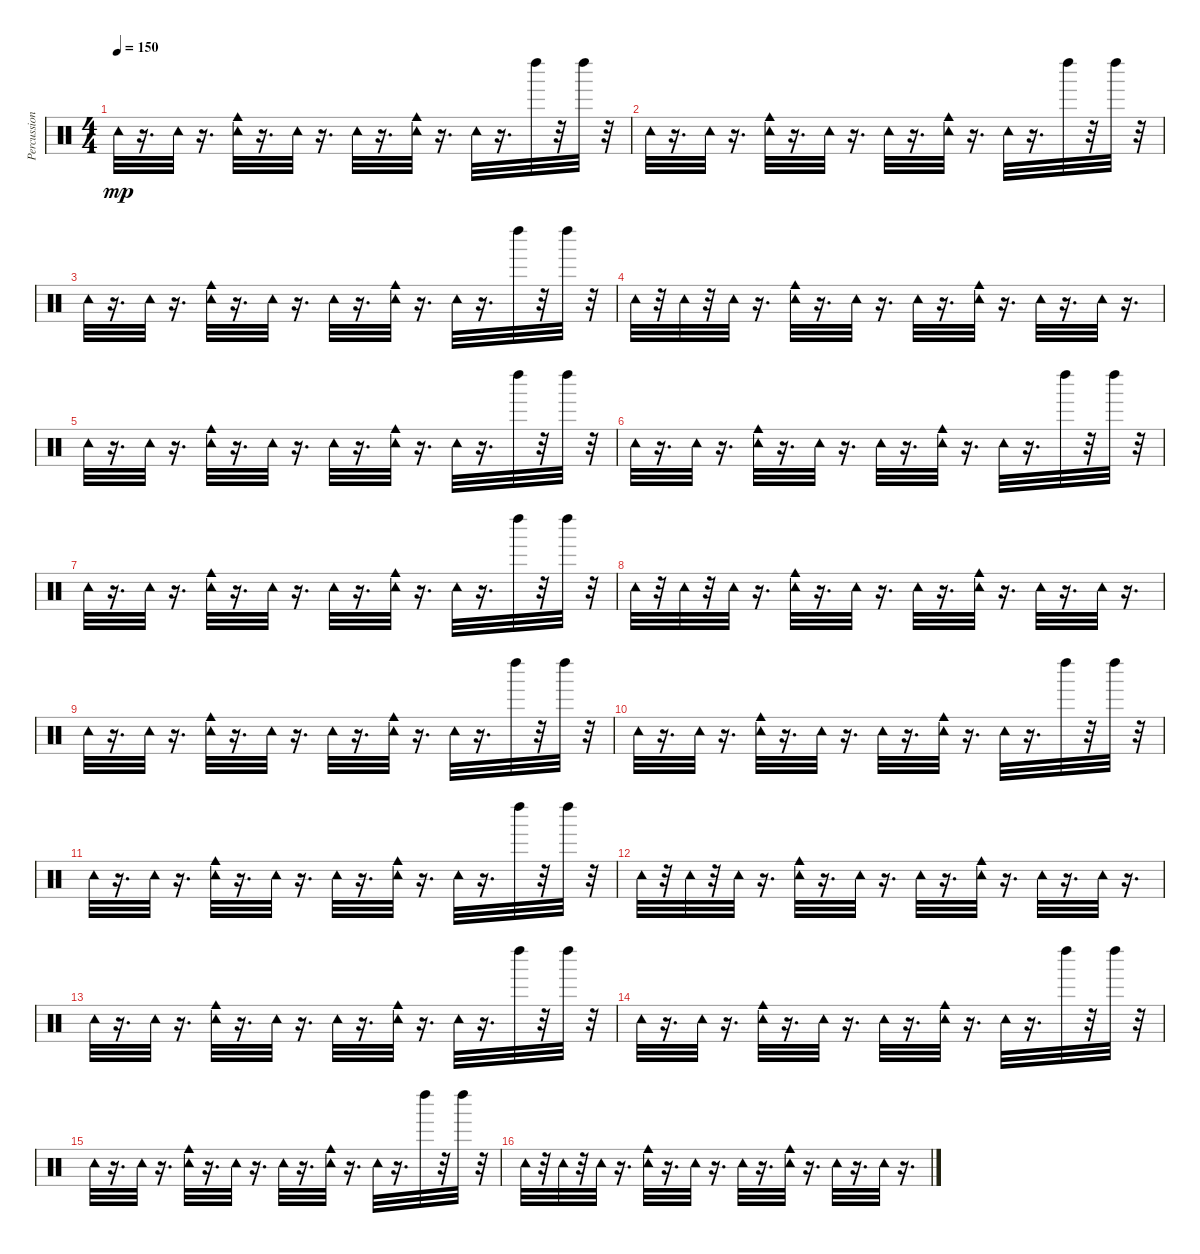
\track ("Percussion" "Percussion") {instrument percussion}
\staff {score}
\articulation defaults
\ts (4 4)
\tempo 150
\clef neutral
\ks c "Tambourine (hit)".32{dy mp}
r.16{d} "Tambourine (hit)".32 r.16{d} ("Tambourine (hit)" "Cowbell medium (hit)").32 r.16{d} "Tambourine (hit)".32 r.16{d} "Tambourine (hit)".32 r.16{d} ("Tambourine (hit)" "Cowbell medium (hit)").32 r.16{d} "Tambourine (hit)".32 r.16{d} "Left Maraca (hit)".32 r.32 "Left Maraca (hit)".32 r.32 |
"Tambourine (hit)".32 r.16{d} "Tambourine (hit)".32 r.16{d} ("Tambourine (hit)" "Cowbell medium (hit)").32 r.16{d} "Tambourine (hit)".32 r.16{d} "Tambourine (hit)".32 r.16{d} ("Tambourine (hit)" "Cowbell medium (hit)").32 r.16{d} "Tambourine (hit)".32 r.16{d} "Left Maraca (hit)".32 r.32 "Left Maraca (hit)".32 r.32 |
"Tambourine (hit)".32 r.16{d} "Tambourine (hit)".32 r.16{d} ("Tambourine (hit)" "Cowbell medium (hit)").32 r.16{d} "Tambourine (hit)".32 r.16{d} "Tambourine (hit)".32 r.16{d} ("Tambourine (hit)" "Cowbell medium (hit)").32 r.16{d} "Tambourine (hit)".32 r.16{d} "Left Maraca (hit)".32 r.32 "Left Maraca (hit)".32 r.32 |
"Tambourine (hit)".32 r.32 "Tambourine (hit)".32 r.32 "Tambourine (hit)".32 r.16{d} ("Tambourine (hit)" "Cowbell medium (hit)").32 r.16{d} "Tambourine (hit)".32 r.16{d} "Tambourine (hit)".32 r.16{d} ("Tambourine (hit)" "Cowbell medium (hit)").32 r.16{d} "Tambourine (hit)".32 r.16{d} "Tambourine (hit)".32 r.16{d} |
"Tambourine (hit)".32 r.16{d} "Tambourine (hit)".32 r.16{d} ("Tambourine (hit)" "Cowbell medium (hit)").32 r.16{d} "Tambourine (hit)".32 r.16{d} "Tambourine (hit)".32 r.16{d} ("Tambourine (hit)" "Cowbell medium (hit)").32 r.16{d} "Tambourine (hit)".32 r.16{d} "Left Maraca (hit)".32 r.32 "Left Maraca (hit)".32 r.32 |
"Tambourine (hit)".32 r.16{d} "Tambourine (hit)".32 r.16{d} ("Tambourine (hit)" "Cowbell medium (hit)").32 r.16{d} "Tambourine (hit)".32 r.16{d} "Tambourine (hit)".32 r.16{d} ("Tambourine (hit)" "Cowbell medium (hit)").32 r.16{d} "Tambourine (hit)".32 r.16{d} "Left Maraca (hit)".32 r.32 "Left Maraca (hit)".32 r.32 |
"Tambourine (hit)".32 r.16{d} "Tambourine (hit)".32 r.16{d} ("Tambourine (hit)" "Cowbell medium (hit)").32 r.16{d} "Tambourine (hit)".32 r.16{d} "Tambourine (hit)".32 r.16{d} ("Tambourine (hit)" "Cowbell medium (hit)").32 r.16{d} "Tambourine (hit)".32 r.16{d} "Left Maraca (hit)".32 r.32 "Left Maraca (hit)".32 r.32 |
"Tambourine (hit)".32 r.32 "Tambourine (hit)".32 r.32 "Tambourine (hit)".32 r.16{d} ("Tambourine (hit)" "Cowbell medium (hit)").32 r.16{d} "Tambourine (hit)".32 r.16{d} "Tambourine (hit)".32 r.16{d} ("Tambourine (hit)" "Cowbell medium (hit)").32 r.16{d} "Tambourine (hit)".32 r.16{d} "Tambourine (hit)".32 r.16{d} |
"Tambourine (hit)".32 r.16{d} "Tambourine (hit)".32 r.16{d} ("Tambourine (hit)" "Cowbell medium (hit)").32 r.16{d} "Tambourine (hit)".32 r.16{d} "Tambourine (hit)".32 r.16{d} ("Tambourine (hit)" "Cowbell medium (hit)").32 r.16{d} "Tambourine (hit)".32 r.16{d} "Left Maraca (hit)".32 r.32 "Left Maraca (hit)".32 r.32 |
"Tambourine (hit)".32 r.16{d} "Tambourine (hit)".32 r.16{d} ("Tambourine (hit)" "Cowbell medium (hit)").32 r.16{d} "Tambourine (hit)".32 r.16{d} "Tambourine (hit)".32 r.16{d} ("Tambourine (hit)" "Cowbell medium (hit)").32 r.16{d} "Tambourine (hit)".32 r.16{d} "Left Maraca (hit)".32 r.32 "Left Maraca (hit)".32 r.32 |
"Tambourine (hit)".32 r.16{d} "Tambourine (hit)".32 r.16{d} ("Tambourine (hit)" "Cowbell medium (hit)").32 r.16{d} "Tambourine (hit)".32 r.16{d} "Tambourine (hit)".32 r.16{d} ("Tambourine (hit)" "Cowbell medium (hit)").32 r.16{d} "Tambourine (hit)".32 r.16{d} "Left Maraca (hit)".32 r.32 "Left Maraca (hit)".32 r.32 |
"Tambourine (hit)".32 r.32 "Tambourine (hit)".32 r.32 "Tambourine (hit)".32 r.16{d} ("Tambourine (hit)" "Cowbell medium (hit)").32 r.16{d} "Tambourine (hit)".32 r.16{d} "Tambourine (hit)".32 r.16{d} ("Tambourine (hit)" "Cowbell medium (hit)").32 r.16{d} "Tambourine (hit)".32 r.16{d} "Tambourine (hit)".32 r.16{d} |
"Tambourine (hit)".32 r.16{d} "Tambourine (hit)".32 r.16{d} ("Tambourine (hit)" "Cowbell medium (hit)").32 r.16{d} "Tambourine (hit)".32 r.16{d} "Tambourine (hit)".32 r.16{d} ("Tambourine (hit)" "Cowbell medium (hit)").32 r.16{d} "Tambourine (hit)".32 r.16{d} "Left Maraca (hit)".32 r.32 "Left Maraca (hit)".32 r.32 |
"Tambourine (hit)".32 r.16{d} "Tambourine (hit)".32 r.16{d} ("Tambourine (hit)" "Cowbell medium (hit)").32 r.16{d} "Tambourine (hit)".32 r.16{d} "Tambourine (hit)".32 r.16{d} ("Tambourine (hit)" "Cowbell medium (hit)").32 r.16{d} "Tambourine (hit)".32 r.16{d} "Left Maraca (hit)".32 r.32 "Left Maraca (hit)".32 r.32 |
"Tambourine (hit)".32 r.16{d} "Tambourine (hit)".32 r.16{d} ("Tambourine (hit)" "Cowbell medium (hit)").32 r.16{d} "Tambourine (hit)".32 r.16{d} "Tambourine (hit)".32 r.16{d} ("Tambourine (hit)" "Cowbell medium (hit)").32 r.16{d} "Tambourine (hit)".32 r.16{d} "Left Maraca (hit)".32 r.32 "Left Maraca (hit)".32 r.32 |
"Tambourine (hit)".32 r.32 "Tambourine (hit)".32 r.32 "Tambourine (hit)".32 r.16{d} ("Tambourine (hit)" "Cowbell medium (hit)").32 r.16{d} "Tambourine (hit)".32 r.16{d} "Tambourine (hit)".32 r.16{d} ("Tambourine (hit)" "Cowbell medium (hit)").32 r.16{d} "Tambourine (hit)".32 r.16{d} "Tambourine (hit)".32 r.16{d}
